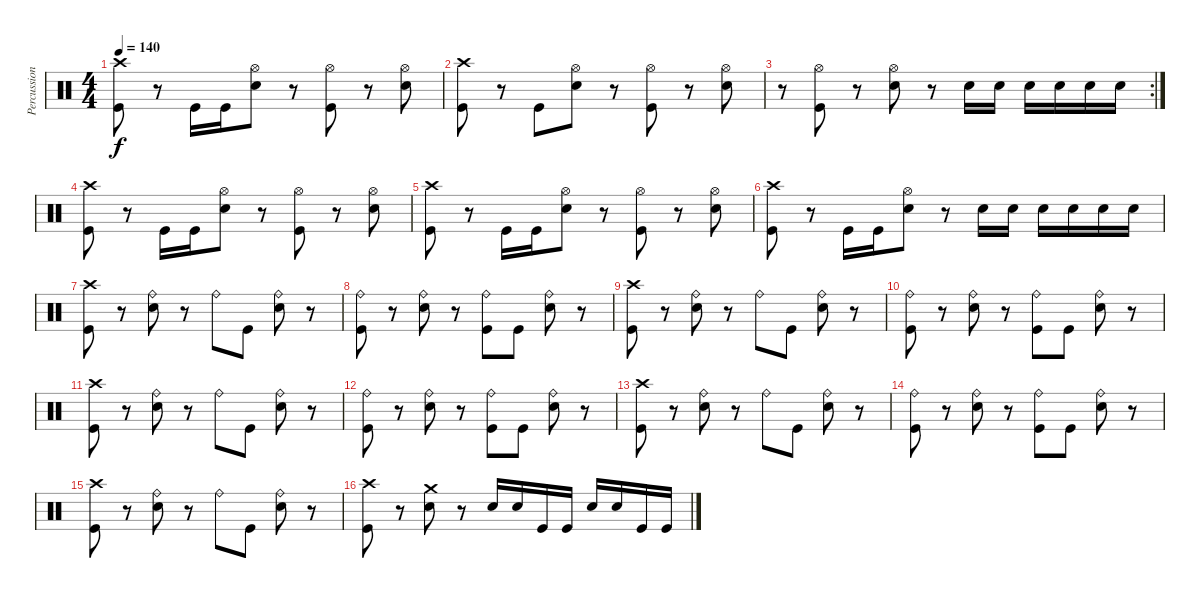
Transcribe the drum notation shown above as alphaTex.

\track ("Percussion" "Percussion") {instrument percussion}
\staff {score}
\articulation defaults
\ts (4 4)
\tempo 140
\clef neutral
\ks c
("Crash high (hit)" "Kick (hit)").8{dy f} r.8 "Kick (hit)".16 "Kick (hit)".16 ("Hi-Hat (open)" "Electric Snare (hit)").8 r.8 ("Hi-Hat (open)" "Kick (hit)").8 r.8 ("Hi-Hat (open)" "Electric Snare (hit)").8 |
("Crash high (hit)" "Kick (hit)").8 r.8 "Kick (hit)".8 ("Hi-Hat (open)" "Electric Snare (hit)").8 r.8 ("Hi-Hat (open)" "Kick (hit)").8 r.8 ("Hi-Hat (open)" "Electric Snare (hit)").8 |
\rc 2
r.8 ("Hi-Hat (open)" "Kick (hit)").8 r.8 ("Hi-Hat (open)" "Electric Snare (hit)").8 r.8 "Electric Snare (hit)".16 "Electric Snare (hit)".16 "Electric Snare (hit)".16 "Electric Snare (hit)".16 "Electric Snare (hit)".16 "Electric Snare (hit)".16 |
("Crash high (hit)" "Kick (hit)").8 r.8 "Kick (hit)".16 "Kick (hit)".16 ("Hi-Hat (open)" "Electric Snare (hit)").8 r.8 ("Hi-Hat (open)" "Kick (hit)").8 r.8 ("Hi-Hat (open)" "Electric Snare (hit)").8 |
("Crash high (hit)" "Kick (hit)").8 r.8 "Kick (hit)".16 "Kick (hit)".16 ("Hi-Hat (open)" "Electric Snare (hit)").8 r.8 ("Hi-Hat (open)" "Kick (hit)").8 r.8 ("Hi-Hat (open)" "Electric Snare (hit)").8 |
("Crash high (hit)" "Kick (hit)").8 r.8 "Kick (hit)".16 "Kick (hit)".16 ("Hi-Hat (open)" "Electric Snare (hit)").8 r.8 "Electric Snare (hit)".16 "Electric Snare (hit)".16 "Electric Snare (hit)".16 "Electric Snare (hit)".16 "Electric Snare (hit)".16 "Electric Snare (hit)".16 |
("Crash high (hit)" "Kick (hit)").8 r.8 ("Ride (bell)" "Electric Snare (hit)").8 r.8 "Ride (bell)".8 "Kick (hit)".8 ("Ride (bell)" "Electric Snare (hit)").8 r.8 |
("Ride (bell)" "Kick (hit)").8 r.8 ("Ride (bell)" "Electric Snare (hit)").8 r.8 ("Ride (bell)" "Kick (hit)").8 "Kick (hit)".8 ("Ride (bell)" "Electric Snare (hit)").8 r.8 |
("Crash high (hit)" "Kick (hit)").8 r.8 ("Ride (bell)" "Electric Snare (hit)").8 r.8 "Ride (bell)".8 "Kick (hit)".8 ("Ride (bell)" "Electric Snare (hit)").8 r.8 |
("Ride (bell)" "Kick (hit)").8 r.8 ("Ride (bell)" "Electric Snare (hit)").8 r.8 ("Ride (bell)" "Kick (hit)").8 "Kick (hit)".8 ("Ride (bell)" "Electric Snare (hit)").8 r.8 |
("Crash high (hit)" "Kick (hit)").8 r.8 ("Ride (bell)" "Electric Snare (hit)").8 r.8 "Ride (bell)".8 "Kick (hit)".8 ("Ride (bell)" "Electric Snare (hit)").8 r.8 |
("Ride (bell)" "Kick (hit)").8 r.8 ("Ride (bell)" "Electric Snare (hit)").8 r.8 ("Ride (bell)" "Kick (hit)").8 "Kick (hit)".8 ("Ride (bell)" "Electric Snare (hit)").8 r.8 |
("Crash high (hit)" "Kick (hit)").8 r.8 ("Ride (bell)" "Electric Snare (hit)").8 r.8 "Ride (bell)".8 "Kick (hit)".8 ("Ride (bell)" "Electric Snare (hit)").8 r.8 |
("Ride (bell)" "Kick (hit)").8 r.8 ("Ride (bell)" "Electric Snare (hit)").8 r.8 ("Ride (bell)" "Kick (hit)").8 "Kick (hit)".8 ("Ride (bell)" "Electric Snare (hit)").8 r.8 |
("Crash high (hit)" "Kick (hit)").8 r.8 ("Ride (bell)" "Electric Snare (hit)").8 r.8 "Ride (bell)".8 "Kick (hit)".8 ("Ride (bell)" "Electric Snare (hit)").8 r.8 |
("Crash high (hit)" "Kick (hit)").8 r.8 ("Crash medium (hit)" "Electric Snare (hit)").8 r.8 "Electric Snare (hit)".16 "Electric Snare (hit)".16 "Kick (hit)".16 "Kick (hit)".16 "Electric Snare (hit)".16 "Electric Snare (hit)".16 "Kick (hit)".16 "Kick (hit)".16
